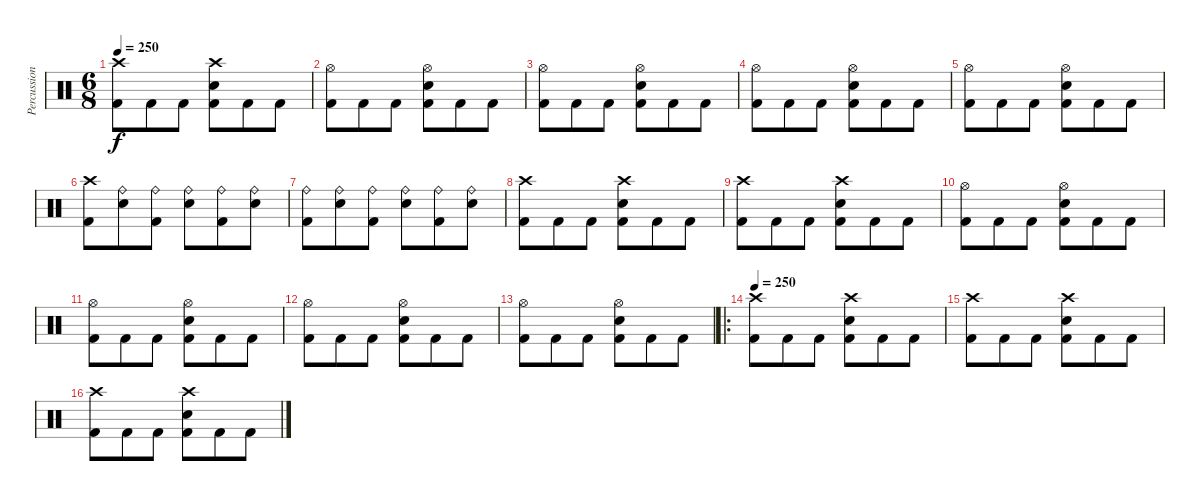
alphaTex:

\track ("Percussion" "Percussion") {instrument percussion}
\staff {score}
\articulation defaults
\ts (6 8)
\tempo 250
\clef neutral
\ks c
("Crash high (hit)" "Kick (hit) 2").8{dy f} "Kick (hit) 2".8 "Kick (hit) 2".8 ("Crash high (hit)" "Electric Snare (hit)" "Kick (hit) 2").8 "Kick (hit) 2".8 "Kick (hit) 2".8 |
("Hi-Hat (open)" "Kick (hit) 2").8 "Kick (hit) 2".8 "Kick (hit) 2".8 ("Hi-Hat (open)" "Electric Snare (hit)" "Kick (hit) 2").8 "Kick (hit) 2".8 "Kick (hit) 2".8 |
("Hi-Hat (open)" "Kick (hit) 2").8 "Kick (hit) 2".8 "Kick (hit) 2".8 ("Hi-Hat (open)" "Electric Snare (hit)" "Kick (hit) 2").8 "Kick (hit) 2".8 "Kick (hit) 2".8 |
("Hi-Hat (open)" "Kick (hit) 2").8 "Kick (hit) 2".8 "Kick (hit) 2".8 ("Hi-Hat (open)" "Electric Snare (hit)" "Kick (hit) 2").8 "Kick (hit) 2".8 "Kick (hit) 2".8 |
("Hi-Hat (open)" "Kick (hit) 2").8 "Kick (hit) 2".8 "Kick (hit) 2".8 ("Hi-Hat (open)" "Electric Snare (hit)" "Kick (hit) 2").8 "Kick (hit) 2".8 "Kick (hit) 2".8 |
("Crash high (hit)" "Kick (hit) 2").8 ("Ride (bell)" "Electric Snare (hit)").8 ("Ride (bell)" "Kick (hit) 2").8 ("Ride (bell)" "Electric Snare (hit)").8 ("Ride (bell)" "Kick (hit) 2").8 ("Ride (bell)" "Electric Snare (hit)").8 |
("Ride (bell)" "Kick (hit) 2").8 ("Ride (bell)" "Electric Snare (hit)").8 ("Ride (bell)" "Kick (hit) 2").8 ("Ride (bell)" "Electric Snare (hit)").8 ("Ride (bell)" "Kick (hit) 2").8 ("Ride (bell)" "Electric Snare (hit)").8 |
("Crash high (hit)" "Kick (hit) 2").8 "Kick (hit) 2".8 "Kick (hit) 2".8 ("Crash high (hit)" "Electric Snare (hit)" "Kick (hit) 2").8 "Kick (hit) 2".8 "Kick (hit) 2".8 |
("Crash high (hit)" "Kick (hit) 2").8 "Kick (hit) 2".8 "Kick (hit) 2".8 ("Crash high (hit)" "Electric Snare (hit)" "Kick (hit) 2").8 "Kick (hit) 2".8 "Kick (hit) 2".8 |
("Hi-Hat (open)" "Kick (hit) 2").8 "Kick (hit) 2".8 "Kick (hit) 2".8 ("Hi-Hat (open)" "Electric Snare (hit)" "Kick (hit) 2").8 "Kick (hit) 2".8 "Kick (hit) 2".8 |
("Hi-Hat (open)" "Kick (hit) 2").8 "Kick (hit) 2".8 "Kick (hit) 2".8 ("Hi-Hat (open)" "Electric Snare (hit)" "Kick (hit) 2").8 "Kick (hit) 2".8 "Kick (hit) 2".8 |
("Hi-Hat (open)" "Kick (hit) 2").8 "Kick (hit) 2".8 "Kick (hit) 2".8 ("Hi-Hat (open)" "Electric Snare (hit)" "Kick (hit) 2").8 "Kick (hit) 2".8 "Kick (hit) 2".8 |
("Hi-Hat (open)" "Kick (hit) 2").8 "Kick (hit) 2".8 "Kick (hit) 2".8 ("Hi-Hat (open)" "Electric Snare (hit)" "Kick (hit) 2").8 "Kick (hit) 2".8 "Kick (hit) 2".8 |
\ro
\tempo 250
("Crash high (hit)" "Kick (hit) 2").8 "Kick (hit) 2".8 "Kick (hit) 2".8 ("Crash high (hit)" "Electric Snare (hit)" "Kick (hit) 2").8 "Kick (hit) 2".8 "Kick (hit) 2".8 |
("Crash high (hit)" "Kick (hit) 2").8 "Kick (hit) 2".8 "Kick (hit) 2".8 ("Crash high (hit)" "Electric Snare (hit)" "Kick (hit) 2").8 "Kick (hit) 2".8 "Kick (hit) 2".8 |
("Crash high (hit)" "Kick (hit) 2").8 "Kick (hit) 2".8 "Kick (hit) 2".8 ("Crash high (hit)" "Electric Snare (hit)" "Kick (hit) 2").8 "Kick (hit) 2".8 "Kick (hit) 2".8
